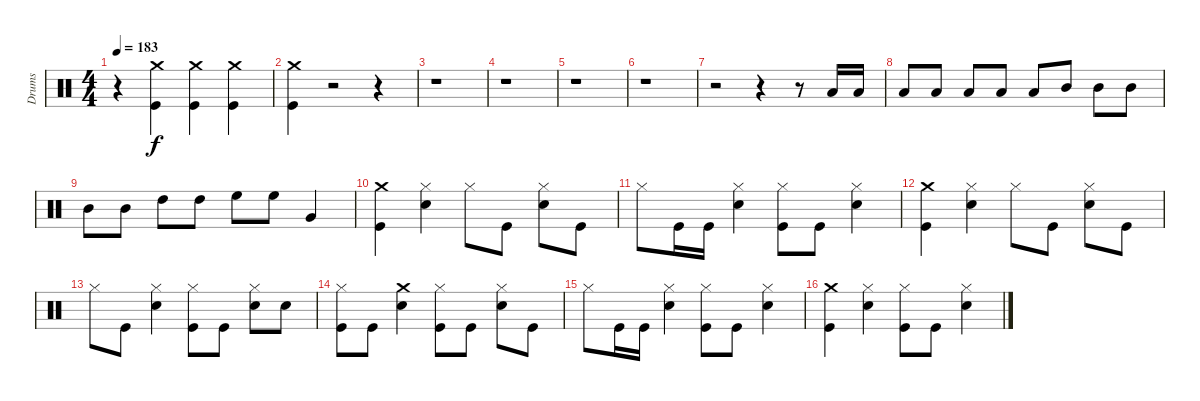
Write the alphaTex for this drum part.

\track ("Drums" "Drums") {instrument percussion}
\staff {score}
\articulation defaults
\ts (4 4)
\tempo 183
\clef neutral
\ks c
r.4{dy f} ("Kick (hit)" "Crash medium (hit)").4 ("Kick (hit)" "Crash medium (hit)").4 ("Kick (hit)" "Crash medium (hit)").4 |
("Kick (hit)" "Crash medium (hit)").4 r.2 r.4 |
r.1 |
r.1 |
r.1 |
r.1 |
r.2 r.4 r.8 "Low Tom (hit)".16 "Low Tom (hit)".16 |
"Low Tom (hit)".8 "Low Tom (hit)".8 "Low Tom (hit)".8 "Low Tom (hit)".8 "Low Tom (hit)".8 "Mid Tom (hit)".8 "Mid Tom (hit)".8 "Mid Tom (hit)".8 |
"Mid Tom (hit)".8 "Mid Tom (hit)".8 "High Tom (hit)".8 "High Tom (hit)".8 "High Floor Tom (hit)".8 "High Floor Tom (hit)".8 "Very Low Tom (hit)".4 |
("Kick (hit)" "Crash medium (hit)").4 ("Hi-Hat (closed)" "Snare (hit) 2").4 "Hi-Hat (closed)".8 "Kick (hit)".8 ("Snare (hit) 2" "Hi-Hat (closed)").8 "Kick (hit)".8 |
"Hi-Hat (closed)".8 "Kick (hit)".16 "Kick (hit)".16 ("Snare (hit) 2" "Hi-Hat (closed)").4 ("Kick (hit)" "Hi-Hat (closed)").8 "Kick (hit)".8 ("Snare (hit) 2" "Hi-Hat (closed)").4 |
("Kick (hit)" "Crash medium (hit)").4 ("Snare (hit) 2" "Hi-Hat (closed)").4 "Hi-Hat (closed)".8 "Kick (hit)".8 ("Snare (hit) 2" "Hi-Hat (closed)").8 "Kick (hit)".8 |
"Hi-Hat (closed)".8 "Kick (hit)".8 ("Snare (hit) 2" "Hi-Hat (closed)").4 ("Kick (hit)" "Hi-Hat (closed)").8 "Kick (hit)".8 ("Snare (hit) 2" "Hi-Hat (closed)").8 "Snare (hit) 2".8 |
("Hi-Hat (closed)" "Kick (hit)").8 "Kick (hit)".8 ("Crash medium (hit)" "Snare (hit) 2").4 ("Hi-Hat (closed)" "Kick (hit)").8 "Kick (hit)".8 ("Snare (hit) 2" "Hi-Hat (closed)").8 "Kick (hit)".8 |
"Hi-Hat (closed)".8 "Kick (hit)".16 "Kick (hit)".16 ("Snare (hit) 2" "Hi-Hat (closed)").4 ("Kick (hit)" "Hi-Hat (closed)").8 "Kick (hit)".8 ("Snare (hit) 2" "Hi-Hat (closed)").4 |
("Kick (hit)" "Crash medium (hit)").4 ("Snare (hit) 2" "Hi-Hat (closed)").4 ("Hi-Hat (closed)" "Kick (hit)").8 "Kick (hit)".8 ("Snare (hit) 2" "Hi-Hat (closed)").4
